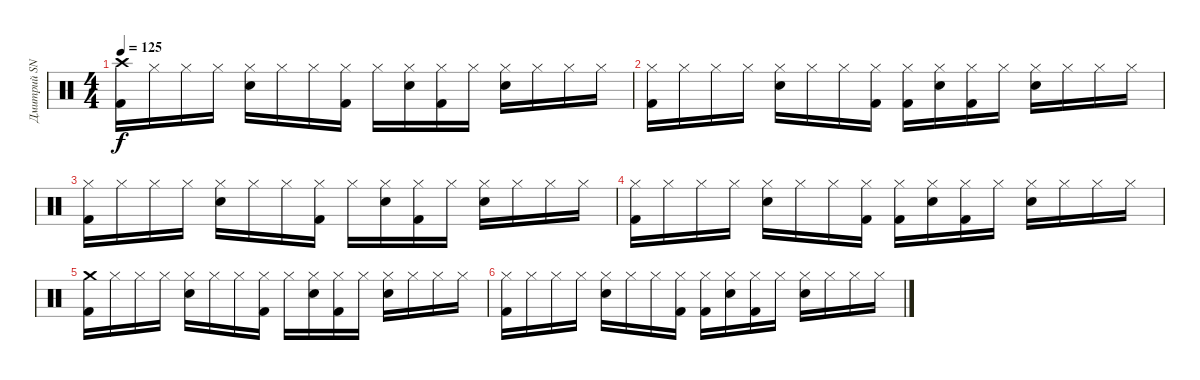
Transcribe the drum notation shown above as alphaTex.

\track ("Дмитрий SNAKE Хакимов" "Дмитрий SN") {instrument percussion}
\staff {score}
\articulation defaults
\ts (4 4)
\tempo 125
\clef neutral
\ks c
("Crash high (hit)" "Kick (hit) 2").16{dy f} "Hi-Hat (closed)".16 "Hi-Hat (closed)".16 "Hi-Hat (closed)".16 ("Hi-Hat (closed)" "Snare (hit) 2").16 "Hi-Hat (closed)".16 "Hi-Hat (closed)".16 ("Hi-Hat (closed)" "Kick (hit) 2").16 "Hi-Hat (closed)".16 ("Hi-Hat (closed)" "Snare (hit) 2").16 ("Hi-Hat (closed)" "Kick (hit) 2").16 "Hi-Hat (closed)".16 ("Hi-Hat (closed)" "Snare (hit) 2").16 "Hi-Hat (closed)".16 "Hi-Hat (closed)".16 "Hi-Hat (closed)".16 |
("Hi-Hat (closed)" "Kick (hit) 2").16 "Hi-Hat (closed)".16 "Hi-Hat (closed)".16 "Hi-Hat (closed)".16 ("Hi-Hat (closed)" "Snare (hit) 2").16 "Hi-Hat (closed)".16 "Hi-Hat (closed)".16 ("Hi-Hat (closed)" "Kick (hit) 2").16 ("Hi-Hat (closed)" "Kick (hit) 2").16 ("Hi-Hat (closed)" "Snare (hit) 2").16 ("Hi-Hat (closed)" "Kick (hit) 2").16 "Hi-Hat (closed)".16 ("Hi-Hat (closed)" "Snare (hit) 2").16 "Hi-Hat (closed)".16 "Hi-Hat (closed)".16 "Hi-Hat (closed)".16 |
("Hi-Hat (closed)" "Kick (hit) 2").16 "Hi-Hat (closed)".16 "Hi-Hat (closed)".16 "Hi-Hat (closed)".16 ("Hi-Hat (closed)" "Snare (hit) 2").16 "Hi-Hat (closed)".16 "Hi-Hat (closed)".16 ("Hi-Hat (closed)" "Kick (hit) 2").16 "Hi-Hat (closed)".16 ("Hi-Hat (closed)" "Snare (hit) 2").16 ("Hi-Hat (closed)" "Kick (hit) 2").16 "Hi-Hat (closed)".16 ("Hi-Hat (closed)" "Snare (hit) 2").16 "Hi-Hat (closed)".16 "Hi-Hat (closed)".16 "Hi-Hat (closed)".16 |
("Hi-Hat (closed)" "Kick (hit) 2").16 "Hi-Hat (closed)".16 "Hi-Hat (closed)".16 "Hi-Hat (closed)".16 ("Hi-Hat (closed)" "Snare (hit) 2").16 "Hi-Hat (closed)".16 "Hi-Hat (closed)".16 ("Hi-Hat (closed)" "Kick (hit) 2").16 ("Hi-Hat (closed)" "Kick (hit) 2").16 ("Hi-Hat (closed)" "Snare (hit) 2").16 ("Hi-Hat (closed)" "Kick (hit) 2").16 "Hi-Hat (closed)".16 ("Hi-Hat (closed)" "Snare (hit) 2").16 "Hi-Hat (closed)".16 "Hi-Hat (closed)".16 "Hi-Hat (closed)".16 |
("Crash medium (hit)" "Kick (hit) 2").16 "Hi-Hat (closed)".16 "Hi-Hat (closed)".16 "Hi-Hat (closed)".16 ("Hi-Hat (closed)" "Snare (hit) 2").16 "Hi-Hat (closed)".16 "Hi-Hat (closed)".16 ("Hi-Hat (closed)" "Kick (hit) 2").16 "Hi-Hat (closed)".16 ("Hi-Hat (closed)" "Snare (hit) 2").16 ("Hi-Hat (closed)" "Kick (hit) 2").16 "Hi-Hat (closed)".16 ("Hi-Hat (closed)" "Snare (hit) 2").16 "Hi-Hat (closed)".16 "Hi-Hat (closed)".16 "Hi-Hat (closed)".16 |
("Hi-Hat (closed)" "Kick (hit) 2").16 "Hi-Hat (closed)".16 "Hi-Hat (closed)".16 "Hi-Hat (closed)".16 ("Hi-Hat (closed)" "Snare (hit) 2").16 "Hi-Hat (closed)".16 "Hi-Hat (closed)".16 ("Hi-Hat (closed)" "Kick (hit) 2").16 ("Hi-Hat (closed)" "Kick (hit) 2").16 ("Hi-Hat (closed)" "Snare (hit) 2").16 ("Hi-Hat (closed)" "Kick (hit) 2").16 "Hi-Hat (closed)".16 ("Hi-Hat (closed)" "Snare (hit) 2").16 "Hi-Hat (closed)".16 "Hi-Hat (closed)".16 "Hi-Hat (closed)".16
